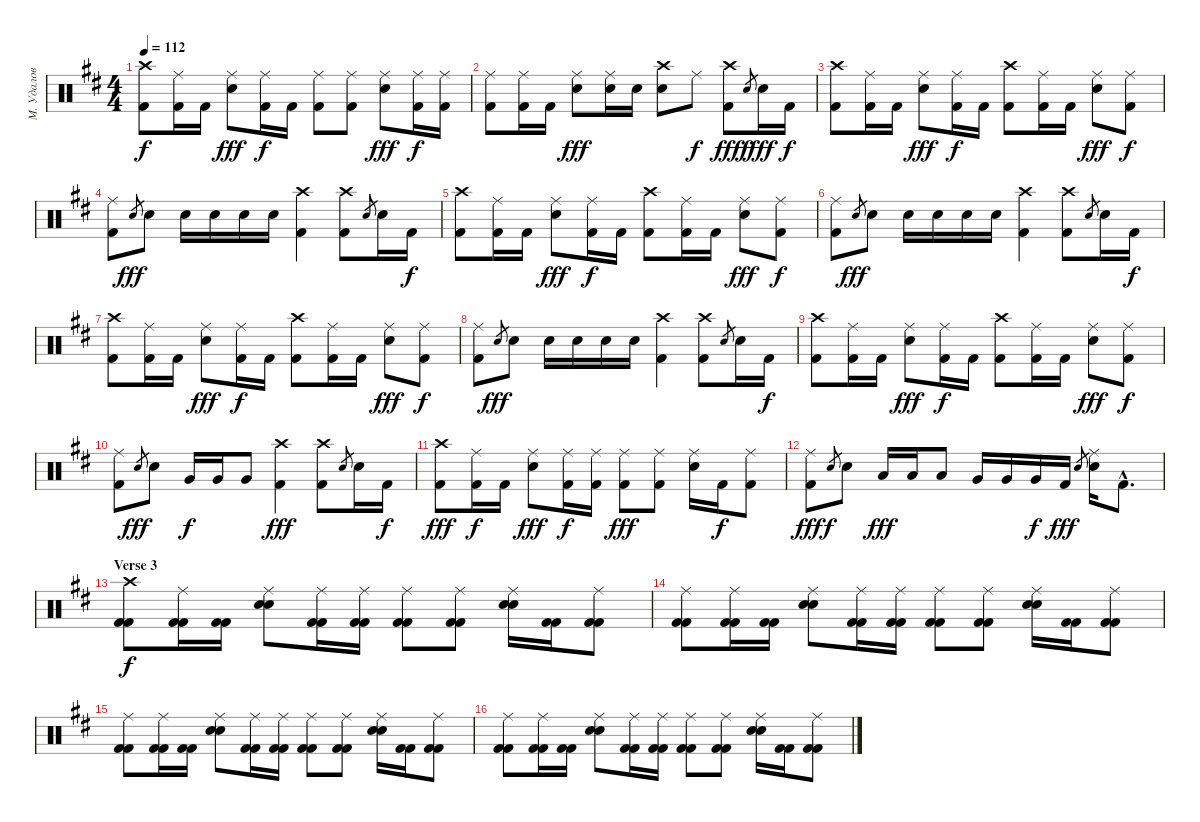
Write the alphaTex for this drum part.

\track ("М. Удалов" "М. Удалов") {instrument percussion}
\staff {score}
\articulation defaults
\ts (4 4)
\tempo 112
\clef neutral
\ks d
("Crash high (hit)" "Kick (hit) 2").8{dy f} ("Ride (middle)" "Kick (hit) 2").16 "Kick (hit) 2".16 ("Ride (middle)" "Electric Snare (hit)").8{dy fff} ("Ride (middle)" "Kick (hit) 2").16{dy f} "Kick (hit) 2".16 ("Ride (middle)" "Kick (hit) 2").8 ("Ride (middle)" "Kick (hit) 2").8 ("Ride (middle)" "Electric Snare (hit)").8{dy fff} ("Ride (middle)" "Kick (hit) 2").16{dy f} ("Ride (middle)" "Kick (hit) 2").16 |
("Ride (middle)" "Kick (hit) 2").8 ("Ride (middle)" "Kick (hit) 2").16 "Kick (hit) 2".16 ("Ride (middle)" "Electric Snare (hit)").8{dy fff} ("Ride (middle)" "Electric Snare (hit)").16 "Electric Snare (hit)".16 ("Crash high (hit)" "Electric Snare (hit)").8 "Ride (middle)".8{dy f} ("Crash high (hit)" "Kick (hit) 2").8{dy fff} "Electric Snare (hit)".8{gr dy f} "Electric Snare (hit)".16{dy fff} "Kick (hit) 2".16{dy f} |
("Crash high (hit)" "Kick (hit) 2").8 ("Ride (middle)" "Kick (hit) 2").16 "Kick (hit) 2".16 ("Ride (middle)" "Electric Snare (hit)").8{dy fff} ("Ride (middle)" "Kick (hit) 2").16{dy f} "Kick (hit) 2".16 ("Crash high (hit)" "Kick (hit) 2").8 ("Ride (middle)" "Kick (hit) 2").16 "Kick (hit) 2".16 ("Ride (middle)" "Electric Snare (hit)").8{dy fff} ("Ride (middle)" "Kick (hit) 2").8{dy f} |
("Ride (middle)" "Kick (hit) 2").8 "Electric Snare (hit)".8{gr dy fff} "Electric Snare (hit)".8 "Electric Snare (hit)".16 "Electric Snare (hit)".16 "Electric Snare (hit)".16 "Electric Snare (hit)".16 ("Crash high (hit)" "Kick (hit) 2").4 ("Crash high (hit)" "Kick (hit) 2").8 "Electric Snare (hit)".8{gr} "Electric Snare (hit)".16 "Kick (hit) 2".16{dy f} |
("Crash high (hit)" "Kick (hit) 2").8 ("Ride (middle)" "Kick (hit) 2").16 "Kick (hit) 2".16 ("Ride (middle)" "Electric Snare (hit)").8{dy fff} ("Ride (middle)" "Kick (hit) 2").16{dy f} "Kick (hit) 2".16 ("Crash high (hit)" "Kick (hit) 2").8 ("Ride (middle)" "Kick (hit) 2").16 "Kick (hit) 2".16 ("Ride (middle)" "Electric Snare (hit)").8{dy fff} ("Ride (middle)" "Kick (hit) 2").8{dy f} |
("Ride (middle)" "Kick (hit) 2").8 "Electric Snare (hit)".8{gr dy fff} "Electric Snare (hit)".8 "Electric Snare (hit)".16 "Electric Snare (hit)".16 "Electric Snare (hit)".16 "Electric Snare (hit)".16 ("Crash high (hit)" "Kick (hit) 2").4 ("Crash high (hit)" "Kick (hit) 2").8 "Electric Snare (hit)".8{gr} "Electric Snare (hit)".16 "Kick (hit) 2".16{dy f} |
("Crash high (hit)" "Kick (hit) 2").8 ("Ride (middle)" "Kick (hit) 2").16 "Kick (hit) 2".16 ("Ride (middle)" "Electric Snare (hit)").8{dy fff} ("Ride (middle)" "Kick (hit) 2").16{dy f} "Kick (hit) 2".16 ("Crash high (hit)" "Kick (hit) 2").8 ("Ride (middle)" "Kick (hit) 2").16 "Kick (hit) 2".16 ("Ride (middle)" "Electric Snare (hit)").8{dy fff} ("Ride (middle)" "Kick (hit) 2").8{dy f} |
("Ride (middle)" "Kick (hit) 2").8 "Electric Snare (hit)".8{gr dy fff} "Electric Snare (hit)".8 "Electric Snare (hit)".16 "Electric Snare (hit)".16 "Electric Snare (hit)".16 "Electric Snare (hit)".16 ("Crash high (hit)" "Kick (hit) 2").4 ("Crash high (hit)" "Kick (hit) 2").8 "Electric Snare (hit)".8{gr} "Electric Snare (hit)".16 "Kick (hit) 2".16{dy f} |
("Crash high (hit)" "Kick (hit) 2").8 ("Ride (middle)" "Kick (hit) 2").16 "Kick (hit) 2".16 ("Ride (middle)" "Electric Snare (hit)").8{dy fff} ("Ride (middle)" "Kick (hit) 2").16{dy f} "Kick (hit) 2".16 ("Crash high (hit)" "Kick (hit) 2").8 ("Ride (middle)" "Kick (hit) 2").16 "Kick (hit) 2".16 ("Ride (middle)" "Electric Snare (hit)").8{dy fff} ("Ride (middle)" "Kick (hit) 2").8{dy f} |
("Ride (middle)" "Kick (hit) 2").8 "Electric Snare (hit)".8{gr dy fff} "Electric Snare (hit)".8 "Very Low Tom (hit)".16{dy f} "Very Low Tom (hit)".16 "Very Low Tom (hit)".8 ("Crash high (hit)" "Kick (hit) 2").4{dy fff} ("Crash high (hit)" "Kick (hit) 2").8 "Electric Snare (hit)".8{gr} "Electric Snare (hit)".16 "Kick (hit) 2".16{dy f} |
("Crash high (hit)" "Kick (hit) 2").8{dy fff} ("Ride (middle)" "Kick (hit) 2").16{dy f} "Kick (hit) 2".16 ("Ride (middle)" "Electric Snare (hit)").8{dy fff} ("Ride (middle)" "Kick (hit) 2").16{dy f} ("Ride (middle)" "Kick (hit) 2").16 ("Ride (middle)" "Kick (hit) 2").8{dy fff} ("Ride (middle)" "Kick (hit) 2").8 ("Ride (middle)" "Electric Snare (hit)").16 "Kick (hit) 2".16{dy f} ("Ride (middle)" "Kick (hit) 2").8 |
("Ride (middle)" "Kick (hit) 2").8{dy fff} "Electric Snare (hit)".8{gr dy f} "Electric Snare (hit)".8 "Low Tom (hit)".16{dy fff} "Low Tom (hit)".16 "Low Tom (hit)".8 "Very Low Tom (hit)".16 "Very Low Tom (hit)".16 "Very Low Tom (hit)".16{dy f} "Kick (hit) 2".16{dy fff} "Electric Snare (hit)".8{gr} ("Ride (middle)" "Electric Snare (hit)").16 "Kick (hit) 2"{hac}.8{d} |
\section ("" "Verse 3")
("Crash high (hit)" "Kick (hit) 2" "Kick (hit) 2").8{dy f} ("Ride (middle)" "Kick (hit) 2" "Kick (hit) 2").16 ("Kick (hit) 2" "Kick (hit) 2").16 ("Ride (middle)" "Electric Snare (hit)" "Electric Snare (hit)").8 ("Ride (middle)" "Kick (hit) 2" "Kick (hit) 2").16 ("Ride (middle)" "Kick (hit) 2" "Kick (hit) 2").16 ("Ride (middle)" "Kick (hit) 2" "Kick (hit) 2").8 ("Ride (middle)" "Kick (hit) 2" "Kick (hit) 2").8 ("Ride (middle)" "Electric Snare (hit)" "Electric Snare (hit)").16 ("Kick (hit) 2" "Kick (hit) 2").16 ("Ride (middle)" "Kick (hit) 2" "Kick (hit) 2").8 |
("Ride (middle)" "Kick (hit) 2" "Kick (hit) 2").8 ("Ride (middle)" "Kick (hit) 2" "Kick (hit) 2").16 ("Kick (hit) 2" "Kick (hit) 2").16 ("Ride (middle)" "Electric Snare (hit)" "Electric Snare (hit)").8 ("Ride (middle)" "Kick (hit) 2" "Kick (hit) 2").16 ("Ride (middle)" "Kick (hit) 2" "Kick (hit) 2").16 ("Ride (middle)" "Kick (hit) 2" "Kick (hit) 2").8 ("Ride (middle)" "Kick (hit) 2" "Kick (hit) 2").8 ("Ride (middle)" "Electric Snare (hit)" "Electric Snare (hit)").16 ("Kick (hit) 2" "Kick (hit) 2").16 ("Ride (middle)" "Kick (hit) 2" "Kick (hit) 2").8 |
("Ride (middle)" "Kick (hit) 2" "Kick (hit) 2").8 ("Ride (middle)" "Kick (hit) 2" "Kick (hit) 2").16 ("Kick (hit) 2" "Kick (hit) 2").16 ("Ride (middle)" "Electric Snare (hit)" "Electric Snare (hit)").8 ("Ride (middle)" "Kick (hit) 2" "Kick (hit) 2").16 ("Ride (middle)" "Kick (hit) 2" "Kick (hit) 2").16 ("Ride (middle)" "Kick (hit) 2" "Kick (hit) 2").8 ("Ride (middle)" "Kick (hit) 2" "Kick (hit) 2").8 ("Ride (middle)" "Electric Snare (hit)" "Electric Snare (hit)").16 ("Kick (hit) 2" "Kick (hit) 2").16 ("Ride (middle)" "Kick (hit) 2" "Kick (hit) 2").8 |
("Ride (middle)" "Kick (hit) 2" "Kick (hit) 2").8 ("Ride (middle)" "Kick (hit) 2" "Kick (hit) 2").16 ("Kick (hit) 2" "Kick (hit) 2").16 ("Ride (middle)" "Electric Snare (hit)" "Electric Snare (hit)").8 ("Ride (middle)" "Kick (hit) 2" "Kick (hit) 2").16 ("Ride (middle)" "Kick (hit) 2" "Kick (hit) 2").16 ("Ride (middle)" "Kick (hit) 2" "Kick (hit) 2").8 ("Ride (middle)" "Kick (hit) 2" "Kick (hit) 2").8 ("Ride (middle)" "Electric Snare (hit)" "Electric Snare (hit)").16 ("Kick (hit) 2" "Kick (hit) 2").16 ("Ride (middle)" "Kick (hit) 2" "Kick (hit) 2").8
